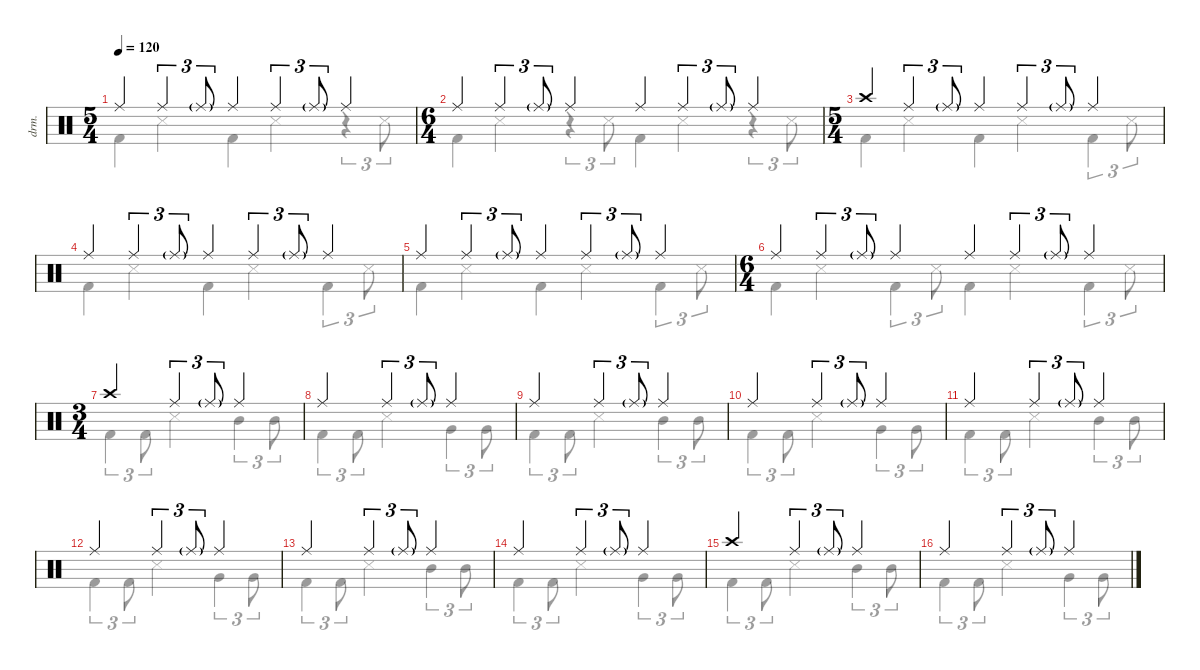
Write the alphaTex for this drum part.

\defaultSystemsLayout 4
\hideDynamics
\bracketExtendMode nobrackets
\otherSystemsTrackNameOrientation horizontal
\track ("B. Richardson Drums" "drm.") {instrument percussion}
\staff {score}
\articulation defaults
\voice
\ts (5 4)
\tempo 120
\clef neutral
\ks c "Ride (middle)".4{dy mf beam Up} "Ride (middle)".4{tu (3 2) beam Up} "Ride (middle)"{g}.8{tu (3 2) beam Up} "Ride (middle)".4{beam Up} "Ride (middle)".4{tu (3 2) beam Up} "Ride (middle)"{g}.8{tu (3 2) beam Up} "Ride (middle)".4{beam Up}
|
\ts (6 4)
\beaming (8 6 6)
"Ride (middle)".4{beam Up} "Ride (middle)".4{tu (3 2) beam Up} "Ride (middle)"{g}.8{tu (3 2) beam Up} "Ride (middle)".4{beam Up} "Ride (middle)".4{beam Up} "Ride (middle)".4{tu (3 2) beam Up} "Ride (middle)"{g}.8{tu (3 2) beam Up} "Ride (middle)".4{beam Up} |
\ts (5 4)
\beaming (8 4 4 2)
"Crash high (hit)".4{beam Up} "Ride (middle)".4{tu (3 2) beam Up} "Ride (middle)"{g}.8{tu (3 2) beam Up} "Ride (middle)".4{beam Up} "Ride (middle)".4{tu (3 2) beam Up} "Ride (middle)"{g}.8{tu (3 2) beam Up} "Ride (middle)".4{beam Up} |
"Ride (middle)".4{beam Up} "Ride (middle)".4{tu (3 2) beam Up} "Ride (middle)"{g}.8{tu (3 2) beam Up} "Ride (middle)".4{beam Up} "Ride (middle)".4{tu (3 2) beam Up} "Ride (middle)"{g}.8{tu (3 2) beam Up} "Ride (middle)".4{beam Up} |
"Ride (middle)".4{beam Up} "Ride (middle)".4{tu (3 2) beam Up} "Ride (middle)"{g}.8{tu (3 2) beam Up} "Ride (middle)".4{beam Up} "Ride (middle)".4{tu (3 2) beam Up} "Ride (middle)"{g}.8{tu (3 2) beam Up} "Ride (middle)".4{beam Up} |
\ts (6 4)
\beaming (8 6 6)
"Ride (middle)".4{beam Up} "Ride (middle)".4{tu (3 2) beam Up} "Ride (middle)"{g}.8{tu (3 2) beam Up} "Ride (middle)".4{beam Up} "Ride (middle)".4{beam Up} "Ride (middle)".4{tu (3 2) beam Up} "Ride (middle)"{g}.8{tu (3 2) beam Up} "Ride (middle)".4{beam Up} |
\ts (3 4)
\beaming (8 2 2 2)
"Crash high (hit)".4{beam Up} "Ride (middle)".4{tu (3 2) beam Up} "Ride (middle)"{g}.8{tu (3 2) beam Up} "Ride (middle)".4{beam Up} |
"Ride (middle)".4{beam Up} "Ride (middle)".4{tu (3 2) beam Up} "Ride (middle)"{g}.8{tu (3 2) beam Up} "Ride (middle)".4{beam Up} |
"Ride (middle)".4{beam Up} "Ride (middle)".4{tu (3 2) beam Up} "Ride (middle)"{g}.8{tu (3 2) beam Up} "Ride (middle)".4{beam Up} |
"Ride (middle)".4{beam Up} "Ride (middle)".4{tu (3 2) beam Up} "Ride (middle)"{g}.8{tu (3 2) beam Up} "Ride (middle)".4{beam Up} |
"Ride (middle)".4{beam Up} "Ride (middle)".4{tu (3 2) beam Up} "Ride (middle)"{g}.8{tu (3 2) beam Up} "Ride (middle)".4{beam Up} |
"Ride (middle)".4{beam Up} "Ride (middle)".4{tu (3 2) beam Up} "Ride (middle)"{g}.8{tu (3 2) beam Up} "Ride (middle)".4{beam Up} |
"Ride (middle)".4{beam Up} "Ride (middle)".4{tu (3 2) beam Up} "Ride (middle)"{g}.8{tu (3 2) beam Up} "Ride (middle)".4{beam Up} |
"Ride (middle)".4{beam Up} "Ride (middle)".4{tu (3 2) beam Up} "Ride (middle)"{g}.8{tu (3 2) beam Up} "Ride (middle)".4{beam Up} |
"Crash high (hit)".4{beam Up} "Ride (middle)".4{tu (3 2) beam Up} "Ride (middle)"{g}.8{tu (3 2) beam Up} "Ride (middle)".4{beam Up} |
"Ride (middle)".4{beam Up} "Ride (middle)".4{tu (3 2) beam Up} "Ride (middle)"{g}.8{tu (3 2) beam Up} "Ride (middle)".4{beam Up}
\voice
\clef neutral
\ottava regular
\simile none
\ks c "Kick (hit) 2".4{dy fff beam Down} "Snare (side stick) 3".4{dy f beam Down} "Kick (hit) 2".4{dy fff beam Down} "Snare (side stick) 3".4{dy f beam Down}
r.4{tu (3 2) beam Down} "Snare (side stick) 3".8{tu (3 2) beam Down} |
"Kick (hit) 2".4{dy fff beam Down} "Snare (side stick) 3".4{dy f beam Down} r.4{tu (3 2) beam Down} "Snare (side stick) 3".8{tu (3 2) beam Down} "Kick (hit) 2".4{dy fff beam Down} "Snare (side stick) 3".4{dy f beam Down} r.4{tu (3 2) beam Down} "Snare (side stick) 3".8{tu (3 2) beam Down} |
"Kick (hit) 2".4{dy fff beam Down} "Snare (side stick) 3".4{dy f beam Down} "Kick (hit) 2".4{dy fff beam Down} "Snare (side stick) 3".4{dy f beam Down} "Kick (hit) 2".4{tu (3 2) dy fff beam Down} "Snare (side stick) 3".8{tu (3 2) dy f beam Down} |
"Kick (hit) 2".4{dy fff beam Down} "Snare (side stick) 3".4{dy f beam Down} "Kick (hit) 2".4{dy fff beam Down} "Snare (side stick) 3".4{dy f beam Down} "Kick (hit) 2".4{tu (3 2) dy fff beam Down} "Snare (side stick) 3".8{tu (3 2) dy f beam Down} |
"Kick (hit) 2".4{dy fff beam Down} "Snare (side stick) 3".4{dy f beam Down} "Kick (hit) 2".4{dy fff beam Down} "Snare (side stick) 3".4{dy f beam Down} "Kick (hit) 2".4{tu (3 2) dy fff beam Down} "Snare (side stick) 3".8{tu (3 2) dy f beam Down} |
"Kick (hit) 2".4{dy fff beam Down} "Snare (side stick) 3".4{dy f beam Down} "Kick (hit) 2".4{tu (3 2) dy fff beam Down} "Snare (side stick) 3".8{tu (3 2) dy f beam Down} "Kick (hit) 2".4{dy fff beam Down} "Snare (side stick) 3".4{dy f beam Down} "Kick (hit) 2".4{tu (3 2) dy fff beam Down} "Snare (side stick) 3".8{tu (3 2) dy f beam Down} |
"Kick (hit) 2".4{tu (3 2) dy fff beam Down} "Kick (hit) 2".8{tu (3 2) beam Down} "Snare (side stick) 3".4{dy f beam Down} "Mid Tom (hit)".4{tu (3 2) dy fff beam Down} "Mid Tom (hit)".8{tu (3 2) beam Down} |
"Kick (hit) 2".4{tu (3 2) beam Down} "Kick (hit) 2".8{tu (3 2) beam Down} "Snare (side stick) 3".4{dy f beam Down} "Very Low Tom (hit)".4{tu (3 2) dy fff beam Down} "Very Low Tom (hit)".8{tu (3 2) beam Down} |
"Kick (hit) 2".4{tu (3 2) beam Down} "Kick (hit) 2".8{tu (3 2) beam Down} "Snare (side stick) 3".4{dy f beam Down} "Mid Tom (hit)".4{tu (3 2) dy fff beam Down} "Mid Tom (hit)".8{tu (3 2) beam Down} |
"Kick (hit) 2".4{tu (3 2) beam Down} "Kick (hit) 2".8{tu (3 2) beam Down} "Snare (side stick) 3".4{dy f beam Down} "Very Low Tom (hit)".4{tu (3 2) dy fff beam Down} "Very Low Tom (hit)".8{tu (3 2) beam Down} |
"Kick (hit) 2".4{tu (3 2) beam Down} "Kick (hit) 2".8{tu (3 2) beam Down} "Snare (side stick) 3".4{dy f beam Down} "Mid Tom (hit)".4{tu (3 2) dy fff beam Down} "Mid Tom (hit)".8{tu (3 2) beam Down} |
"Kick (hit) 2".4{tu (3 2) beam Down} "Kick (hit) 2".8{tu (3 2) beam Down} "Snare (side stick) 3".4{dy f beam Down} "Very Low Tom (hit)".4{tu (3 2) dy fff beam Down} "Very Low Tom (hit)".8{tu (3 2) beam Down} |
"Kick (hit) 2".4{tu (3 2) beam Down} "Kick (hit) 2".8{tu (3 2) beam Down} "Snare (side stick) 3".4{dy f beam Down} "Mid Tom (hit)".4{tu (3 2) dy fff beam Down} "Mid Tom (hit)".8{tu (3 2) beam Down} |
"Kick (hit) 2".4{tu (3 2) beam Down} "Kick (hit) 2".8{tu (3 2) beam Down} "Snare (side stick) 3".4{dy f beam Down} "Very Low Tom (hit)".4{tu (3 2) dy fff beam Down} "Very Low Tom (hit)".8{tu (3 2) beam Down} |
"Kick (hit) 2".4{tu (3 2) beam Down} "Kick (hit) 2".8{tu (3 2) beam Down} "Snare (side stick) 3".4{dy f beam Down} "Mid Tom (hit)".4{tu (3 2) dy fff beam Down} "Mid Tom (hit)".8{tu (3 2) beam Down} |
"Kick (hit) 2".4{tu (3 2) beam Down} "Kick (hit) 2".8{tu (3 2) beam Down} "Snare (side stick) 3".4{dy f beam Down} "Very Low Tom (hit)".4{tu (3 2) dy fff beam Down} "Very Low Tom (hit)".8{tu (3 2) beam Down}
